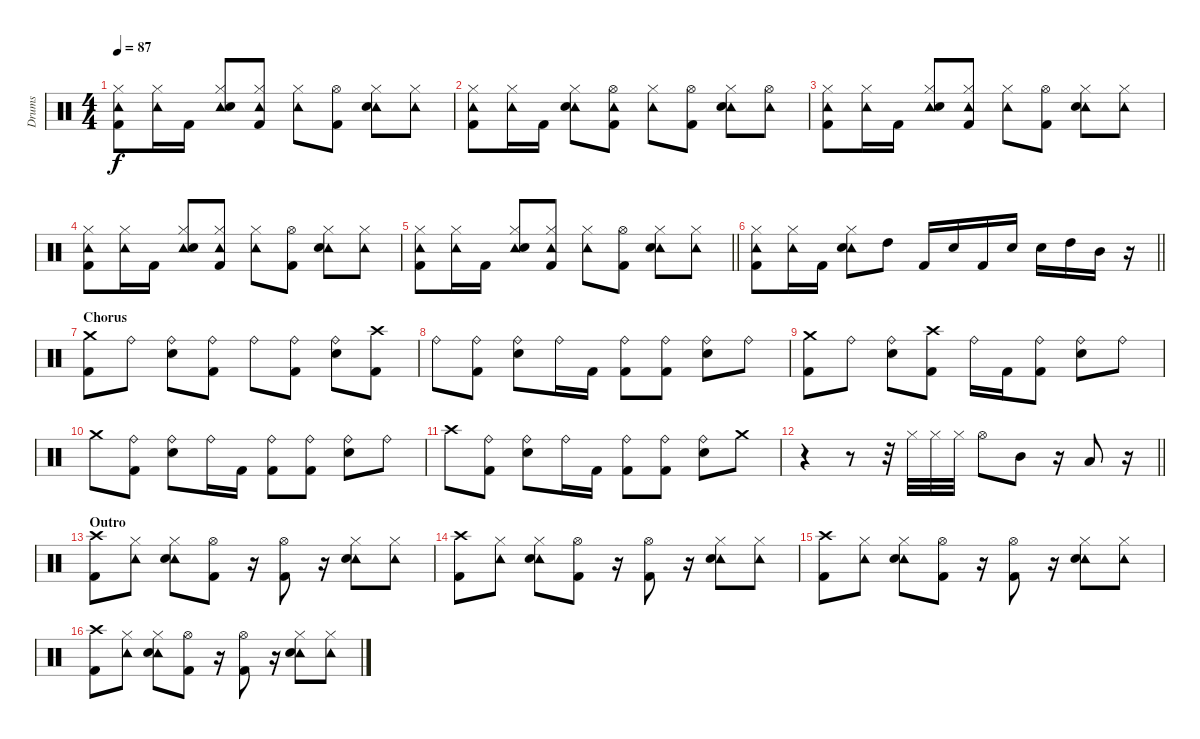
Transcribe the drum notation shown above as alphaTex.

\track ("Drums" "Drums") {instrument percussion}
\staff {score}
\articulation defaults
\ts (4 4)
\tempo 87
\clef neutral
\ks c
("Tambourine (hit)" "Hi-Hat (closed)" "Kick (hit) 2").8{dy f} ("Tambourine (hit)" "Hi-Hat (closed)").16 "Kick (hit) 2".16 ("Tambourine (hit)" "Hi-Hat (closed)" "Snare (hit) 2").8 ("Tambourine (hit)" "Hi-Hat (closed)" "Kick (hit) 2").8 ("Tambourine (hit)" "Hi-Hat (closed)").8 ("Hi-Hat (open)" "Kick (hit) 2").8 ("Tambourine (hit)" "Hi-Hat (closed)" "Snare (hit) 2").8 ("Tambourine (hit)" "Hi-Hat (closed)").8 |
("Tambourine (hit)" "Hi-Hat (closed)" "Kick (hit) 2").8 ("Tambourine (hit)" "Hi-Hat (closed)").16 "Kick (hit) 2".16 ("Tambourine (hit)" "Hi-Hat (closed)" "Snare (hit) 2").8 ("Tambourine (hit)" "Hi-Hat (open)" "Kick (hit) 2").8 ("Tambourine (hit)" "Hi-Hat (closed)").8 ("Hi-Hat (open)" "Kick (hit) 2").8 ("Tambourine (hit)" "Hi-Hat (closed)" "Snare (hit) 2").8 ("Tambourine (hit)" "Hi-Hat (open)").8 |
("Tambourine (hit)" "Hi-Hat (closed)" "Kick (hit) 2").8 ("Tambourine (hit)" "Hi-Hat (closed)").16 "Kick (hit) 2".16 ("Tambourine (hit)" "Hi-Hat (closed)" "Snare (hit) 2").8 ("Tambourine (hit)" "Hi-Hat (closed)" "Kick (hit) 2").8 ("Tambourine (hit)" "Hi-Hat (closed)").8 ("Hi-Hat (open)" "Kick (hit) 2").8 ("Tambourine (hit)" "Hi-Hat (closed)" "Snare (hit) 2").8 ("Tambourine (hit)" "Hi-Hat (closed)").8 |
("Tambourine (hit)" "Hi-Hat (closed)" "Kick (hit) 2").8 ("Tambourine (hit)" "Hi-Hat (closed)").16 "Kick (hit) 2".16 ("Tambourine (hit)" "Hi-Hat (closed)" "Snare (hit) 2").8 ("Tambourine (hit)" "Hi-Hat (closed)" "Kick (hit) 2").8 ("Tambourine (hit)" "Hi-Hat (closed)").8 ("Hi-Hat (open)" "Kick (hit) 2").8 ("Tambourine (hit)" "Hi-Hat (closed)" "Snare (hit) 2").8 ("Tambourine (hit)" "Hi-Hat (closed)").8 |
\barLineRight lightlight
("Tambourine (hit)" "Hi-Hat (closed)" "Kick (hit) 2").8 ("Tambourine (hit)" "Hi-Hat (closed)").16 "Kick (hit) 2".16 ("Tambourine (hit)" "Hi-Hat (closed)" "Snare (hit) 2").8 ("Tambourine (hit)" "Hi-Hat (closed)" "Kick (hit) 2").8 ("Tambourine (hit)" "Hi-Hat (closed)").8 ("Hi-Hat (open)" "Kick (hit) 2").8 ("Tambourine (hit)" "Hi-Hat (closed)" "Snare (hit) 2").8 ("Tambourine (hit)" "Hi-Hat (closed)").8 |
\section ("" "")
\barLineRight lightlight
("Tambourine (hit)" "Hi-Hat (closed)" "Kick (hit) 2").8 ("Tambourine (hit)" "Hi-Hat (closed)").16 "Kick (hit) 2".16 ("Tambourine (hit)" "Hi-Hat (closed)" "Snare (hit) 2").8 "High Tom (hit)".8 "Kick (hit) 2".16 "Snare (hit) 2".16 "Kick (hit) 2".16 "Snare (hit) 2".16 "Snare (hit) 2".16 "High Tom (hit)".16 "Mid Tom (hit)".16 r.16 |
\section ("" "Chorus")
("Crash medium (hit)" "Kick (hit) 2").8 "Ride (bell)".8 ("Ride (bell)" "Snare (hit) 2").8 ("Ride (bell)" "Kick (hit) 2").8 "Ride (bell)".8 ("Ride (bell)" "Kick (hit) 2").8 ("Ride (bell)" "Snare (hit) 2").8 ("Crash high (hit)" "Kick (hit) 2").8 |
"Ride (bell)".8 ("Ride (bell)" "Kick (hit) 2").8 ("Ride (bell)" "Snare (hit) 2").8 "Ride (bell)".16 "Kick (hit) 2".16 ("Ride (bell)" "Kick (hit) 2").8 ("Ride (bell)" "Kick (hit) 2").8 ("Ride (bell)" "Snare (hit) 2").8 "Ride (bell)".8 |
("Crash medium (hit)" "Kick (hit) 2").8 "Ride (bell)".8 ("Ride (bell)" "Snare (hit) 2").8 ("Crash high (hit)" "Kick (hit) 2").8 "Ride (bell)".16 "Kick (hit) 2".16 ("Ride (bell)" "Kick (hit) 2").8 ("Ride (bell)" "Snare (hit) 2").8 "Ride (bell)".8 |
"Crash medium (hit)".8 ("Ride (bell)" "Kick (hit) 2").8 ("Ride (bell)" "Snare (hit) 2").8 "Ride (bell)".16 "Kick (hit) 2".16 ("Ride (bell)" "Kick (hit) 2").8 ("Ride (bell)" "Kick (hit) 2").8 ("Ride (bell)" "Snare (hit) 2").8 "Ride (bell)".8 |
"Crash high (hit)".8 ("Ride (bell)" "Kick (hit) 2").8 ("Ride (bell)" "Snare (hit) 2").8 "Ride (bell)".16 "Kick (hit) 2".16 ("Ride (bell)" "Kick (hit) 2").8 ("Ride (bell)" "Kick (hit) 2").8 ("Ride (bell)" "Snare (hit) 2").8 "Crash medium (hit)".8 |
\barLineRight lightlight
r.4 r.8 r.32 "Hi-Hat (closed)".32 "Hi-Hat (closed)".32 "Hi-Hat (closed)".32 "Hi-Hat (open)".8 "Mid Tom (hit)".8 r.16 "Low Floor Tom (hit)".8 r.16 |
\section ("" "Outro")
("Crash high (hit)" "Kick (hit) 2").8 ("Tambourine (hit)" "Hi-Hat (closed)").8 ("Tambourine (hit)" "Hi-Hat (closed)" "Snare (hit) 2").8 ("Hi-Hat (open)" "Kick (hit) 2").8 r.16 ("Hi-Hat (open)" "Kick (hit) 2").8 r.16 ("Tambourine (hit)" "Hi-Hat (closed)" "Snare (hit) 2").8 ("Tambourine (hit)" "Hi-Hat (closed)").8 |
("Crash high (hit)" "Kick (hit) 2").8{volume 12} ("Tambourine (hit)" "Hi-Hat (closed)").8 ("Tambourine (hit)" "Hi-Hat (closed)" "Snare (hit) 2").8 ("Hi-Hat (open)" "Kick (hit) 2").8 r.16 ("Hi-Hat (open)" "Kick (hit) 2").8 r.16 ("Tambourine (hit)" "Hi-Hat (closed)" "Snare (hit) 2").8 ("Tambourine (hit)" "Hi-Hat (closed)").8 |
("Crash high (hit)" "Kick (hit) 2").8 ("Tambourine (hit)" "Hi-Hat (closed)").8 ("Tambourine (hit)" "Hi-Hat (closed)" "Snare (hit) 2").8 ("Hi-Hat (open)" "Kick (hit) 2").8 r.16 ("Hi-Hat (open)" "Kick (hit) 2").8 r.16 ("Tambourine (hit)" "Hi-Hat (closed)" "Snare (hit) 2").8 ("Tambourine (hit)" "Hi-Hat (closed)").8 |
("Crash high (hit)" "Kick (hit) 2").8{volume 10} ("Tambourine (hit)" "Hi-Hat (closed)").8 ("Tambourine (hit)" "Hi-Hat (closed)" "Snare (hit) 2").8 ("Hi-Hat (open)" "Kick (hit) 2").8 r.16 ("Hi-Hat (open)" "Kick (hit) 2").8 r.16 ("Tambourine (hit)" "Hi-Hat (closed)" "Snare (hit) 2").8 ("Tambourine (hit)" "Hi-Hat (closed)").8
